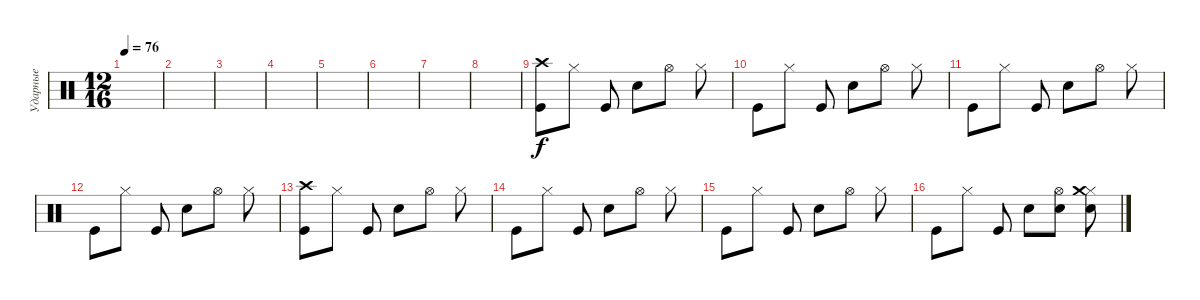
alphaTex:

\track ("Ударные" "Ударные") {instrument percussion}
\staff {score}
\articulation defaults
\ts (12 16)
\tempo 76
\clef neutral
\ks c
|
|
|
|
|
|
|
|
("Kick (hit)" "Crash high (hit)").8 "Hi-Hat (closed)".8 "Kick (hit)".8 "Electric Snare (hit)".8 "Hi-Hat (open)".8 "Hi-Hat (closed)".8 |
"Kick (hit)".8 "Hi-Hat (closed)".8 "Kick (hit)".8 "Electric Snare (hit)".8 "Hi-Hat (open)".8 "Hi-Hat (closed)".8 |
"Kick (hit)".8 "Hi-Hat (closed)".8 "Kick (hit)".8 "Electric Snare (hit)".8 "Hi-Hat (open)".8 "Hi-Hat (closed)".8 |
"Kick (hit)".8 "Hi-Hat (closed)".8 "Kick (hit)".8 "Electric Snare (hit)".8 "Hi-Hat (open)".8 "Hi-Hat (closed)".8 |
("Kick (hit)" "Crash high (hit)").8 "Hi-Hat (closed)".8 "Kick (hit)".8 "Electric Snare (hit)".8 "Hi-Hat (open)".8 "Hi-Hat (closed)".8 |
"Kick (hit)".8 "Hi-Hat (closed)".8 "Kick (hit)".8 "Electric Snare (hit)".8 "Hi-Hat (open)".8 "Hi-Hat (closed)".8 |
"Kick (hit)".8 "Hi-Hat (closed)".8 "Kick (hit)".8 "Electric Snare (hit)".8 "Hi-Hat (open)".8 "Hi-Hat (closed)".8 |
"Kick (hit)".8 "Hi-Hat (closed)".8 "Kick (hit)".8 "Electric Snare (hit)".8 ("Hi-Hat (open)" "Electric Snare (hit)").8 ("Hi-Hat (closed)" "Electric Snare (hit)" "Crash medium (hit)").8
